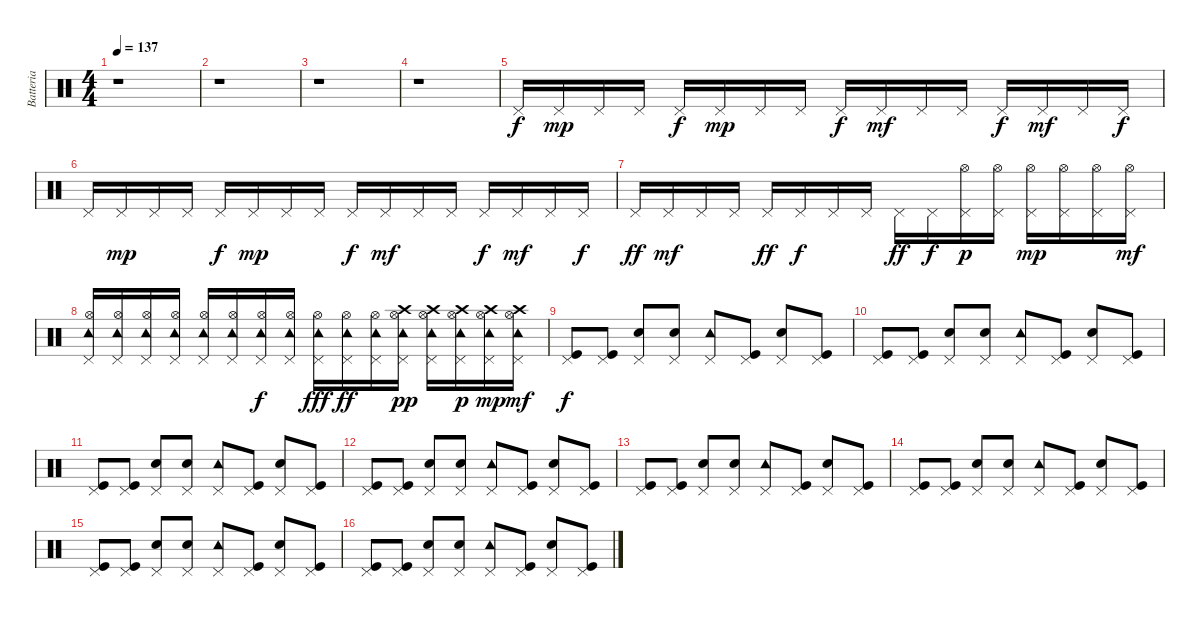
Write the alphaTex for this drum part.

\track ("Batteria" "Batteria") {instrument percussion}
\staff {score}
\articulation defaults
\ts (4 4)
\tempo 137
\clef neutral
\ks c
r.1{dy f} |
r.1 |
r.1 |
r.1 |
"Pedal Hi-Hat (hit)".16 "Pedal Hi-Hat (hit)".16{dy mp} "Pedal Hi-Hat (hit)".16 "Pedal Hi-Hat (hit)".16 "Pedal Hi-Hat (hit)".16{dy f} "Pedal Hi-Hat (hit)".16{dy mp} "Pedal Hi-Hat (hit)".16 "Pedal Hi-Hat (hit)".16 "Pedal Hi-Hat (hit)".16{dy f} "Pedal Hi-Hat (hit)".16{dy mf} "Pedal Hi-Hat (hit)".16 "Pedal Hi-Hat (hit)".16 "Pedal Hi-Hat (hit)".16{dy f} "Pedal Hi-Hat (hit)".16{dy mf} "Pedal Hi-Hat (hit)".16 "Pedal Hi-Hat (hit)".16{dy f} |
"Pedal Hi-Hat (hit)".16 "Pedal Hi-Hat (hit)".16{dy mp} "Pedal Hi-Hat (hit)".16 "Pedal Hi-Hat (hit)".16 "Pedal Hi-Hat (hit)".16{dy f} "Pedal Hi-Hat (hit)".16{dy mp} "Pedal Hi-Hat (hit)".16 "Pedal Hi-Hat (hit)".16 "Pedal Hi-Hat (hit)".16{dy f} "Pedal Hi-Hat (hit)".16{dy mf} "Pedal Hi-Hat (hit)".16 "Pedal Hi-Hat (hit)".16 "Pedal Hi-Hat (hit)".16{dy f} "Pedal Hi-Hat (hit)".16{dy mf} "Pedal Hi-Hat (hit)".16 "Pedal Hi-Hat (hit)".16{dy f} |
"Pedal Hi-Hat (hit)".16{dy ff} "Pedal Hi-Hat (hit)".16{dy mf} "Pedal Hi-Hat (hit)".16 "Pedal Hi-Hat (hit)".16 "Pedal Hi-Hat (hit)".16{dy ff} "Pedal Hi-Hat (hit)".16{dy f} "Pedal Hi-Hat (hit)".16 "Pedal Hi-Hat (hit)".16 "Pedal Hi-Hat (hit)".16{dy ff} "Pedal Hi-Hat (hit)".16{dy f} ("Pedal Hi-Hat (hit)" "Hi-Hat (open)").16{dy p} ("Pedal Hi-Hat (hit)" "Hi-Hat (open)").16 ("Pedal Hi-Hat (hit)" "Hi-Hat (open)").16{dy mp} ("Pedal Hi-Hat (hit)" "Hi-Hat (open)").16 ("Pedal Hi-Hat (hit)" "Hi-Hat (open)").16 ("Pedal Hi-Hat (hit)" "Hi-Hat (open)").16{dy mf} |
("Pedal Hi-Hat (hit)" "Tambourine (hit)" "Hi-Hat (open)").16 ("Pedal Hi-Hat (hit)" "Tambourine (hit)" "Hi-Hat (open)").16 ("Pedal Hi-Hat (hit)" "Tambourine (hit)" "Hi-Hat (open)").16 ("Pedal Hi-Hat (hit)" "Tambourine (hit)" "Hi-Hat (open)").16 ("Pedal Hi-Hat (hit)" "Tambourine (hit)" "Hi-Hat (open)").16 ("Pedal Hi-Hat (hit)" "Tambourine (hit)" "Hi-Hat (open)").16 ("Pedal Hi-Hat (hit)" "Tambourine (hit)" "Hi-Hat (open)").16{dy f} ("Pedal Hi-Hat (hit)" "Tambourine (hit)" "Hi-Hat (open)").16 ("Pedal Hi-Hat (hit)" "Tambourine (hit)" "Hi-Hat (open)").16{dy fff} ("Pedal Hi-Hat (hit)" "Tambourine (hit)" "Hi-Hat (open)").16{dy ff} ("Pedal Hi-Hat (hit)" "Tambourine (hit)" "Hi-Hat (open)").16 ("Pedal Hi-Hat (hit)" "Tambourine (hit)" "Hi-Hat (open)" "Crash high (hit)").16{dy pp} ("Pedal Hi-Hat (hit)" "Tambourine (hit)" "Hi-Hat (open)" "Crash high (hit)").16 ("Pedal Hi-Hat (hit)" "Tambourine (hit)" "Hi-Hat (open)" "Crash high (hit)").16{dy p} ("Pedal Hi-Hat (hit)" "Tambourine (hit)" "Hi-Hat (open)" "Crash high (hit)").16{dy mp} ("Pedal Hi-Hat (hit)" "Tambourine (hit)" "Hi-Hat (open)" "Crash high (hit)").16{dy mf} |
("Pedal Hi-Hat (hit)" "Kick (hit)").8{dy f} ("Pedal Hi-Hat (hit)" "Kick (hit)").8 ("Pedal Hi-Hat (hit)" "Electric Snare (hit)").8 ("Pedal Hi-Hat (hit)" "Electric Snare (hit)").8 ("Pedal Hi-Hat (hit)" "Tambourine (hit)").8 ("Pedal Hi-Hat (hit)" "Kick (hit)").8 ("Pedal Hi-Hat (hit)" "Electric Snare (hit)").8 ("Pedal Hi-Hat (hit)" "Kick (hit)").8 |
("Pedal Hi-Hat (hit)" "Kick (hit)").8 ("Pedal Hi-Hat (hit)" "Kick (hit)").8 ("Pedal Hi-Hat (hit)" "Electric Snare (hit)").8 ("Pedal Hi-Hat (hit)" "Electric Snare (hit)").8 ("Pedal Hi-Hat (hit)" "Tambourine (hit)").8 ("Pedal Hi-Hat (hit)" "Kick (hit)").8 ("Pedal Hi-Hat (hit)" "Electric Snare (hit)").8 ("Pedal Hi-Hat (hit)" "Kick (hit)").8 |
("Pedal Hi-Hat (hit)" "Kick (hit)").8 ("Pedal Hi-Hat (hit)" "Kick (hit)").8 ("Pedal Hi-Hat (hit)" "Electric Snare (hit)").8 ("Pedal Hi-Hat (hit)" "Electric Snare (hit)").8 ("Pedal Hi-Hat (hit)" "Tambourine (hit)").8 ("Pedal Hi-Hat (hit)" "Kick (hit)").8 ("Pedal Hi-Hat (hit)" "Electric Snare (hit)").8 ("Pedal Hi-Hat (hit)" "Kick (hit)").8 |
("Pedal Hi-Hat (hit)" "Kick (hit)").8 ("Pedal Hi-Hat (hit)" "Kick (hit)").8 ("Pedal Hi-Hat (hit)" "Electric Snare (hit)").8 ("Pedal Hi-Hat (hit)" "Electric Snare (hit)").8 ("Pedal Hi-Hat (hit)" "Tambourine (hit)").8 ("Pedal Hi-Hat (hit)" "Kick (hit)").8 ("Pedal Hi-Hat (hit)" "Electric Snare (hit)").8 ("Pedal Hi-Hat (hit)" "Kick (hit)").8 |
("Pedal Hi-Hat (hit)" "Kick (hit)").8 ("Pedal Hi-Hat (hit)" "Kick (hit)").8 ("Pedal Hi-Hat (hit)" "Electric Snare (hit)").8 ("Pedal Hi-Hat (hit)" "Electric Snare (hit)").8 ("Pedal Hi-Hat (hit)" "Tambourine (hit)").8 ("Pedal Hi-Hat (hit)" "Kick (hit)").8 ("Pedal Hi-Hat (hit)" "Electric Snare (hit)").8 ("Pedal Hi-Hat (hit)" "Kick (hit)").8 |
("Pedal Hi-Hat (hit)" "Kick (hit)").8 ("Pedal Hi-Hat (hit)" "Kick (hit)").8 ("Pedal Hi-Hat (hit)" "Electric Snare (hit)").8 ("Pedal Hi-Hat (hit)" "Electric Snare (hit)").8 ("Pedal Hi-Hat (hit)" "Tambourine (hit)").8 ("Pedal Hi-Hat (hit)" "Kick (hit)").8 ("Pedal Hi-Hat (hit)" "Electric Snare (hit)").8 ("Pedal Hi-Hat (hit)" "Kick (hit)").8 |
("Pedal Hi-Hat (hit)" "Kick (hit)").8 ("Pedal Hi-Hat (hit)" "Kick (hit)").8 ("Pedal Hi-Hat (hit)" "Electric Snare (hit)").8 ("Pedal Hi-Hat (hit)" "Electric Snare (hit)").8 ("Pedal Hi-Hat (hit)" "Tambourine (hit)").8 ("Pedal Hi-Hat (hit)" "Kick (hit)").8 ("Pedal Hi-Hat (hit)" "Electric Snare (hit)").8 ("Pedal Hi-Hat (hit)" "Kick (hit)").8 |
("Pedal Hi-Hat (hit)" "Kick (hit)").8 ("Pedal Hi-Hat (hit)" "Kick (hit)").8 ("Pedal Hi-Hat (hit)" "Electric Snare (hit)").8 ("Pedal Hi-Hat (hit)" "Electric Snare (hit)").8 ("Pedal Hi-Hat (hit)" "Tambourine (hit)").8 ("Pedal Hi-Hat (hit)" "Kick (hit)").8 ("Pedal Hi-Hat (hit)" "Electric Snare (hit)").8 ("Pedal Hi-Hat (hit)" "Kick (hit)").8
